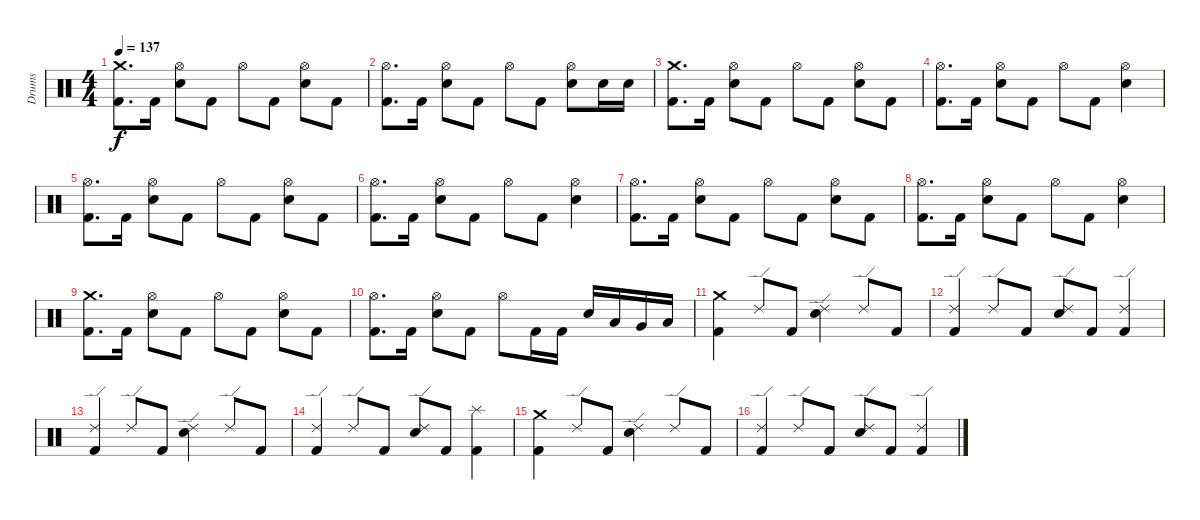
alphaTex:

\track ("Drums" "Drums") {instrument percussion}
\staff {score}
\articulation defaults
\ts (4 4)
\tempo 137
\clef neutral
\ks c
("Crash medium (hit)" "Kick (hit) 2").8{d dy f} "Kick (hit) 2".16 ("Hi-Hat (open)" "Electric Snare (hit)").8 "Kick (hit) 2".8 "Hi-Hat (open)".8 "Kick (hit) 2".8 ("Hi-Hat (open)" "Electric Snare (hit)").8 "Kick (hit) 2".8 |
("Hi-Hat (open)" "Kick (hit) 2").8{d} "Kick (hit) 2".16 ("Hi-Hat (open)" "Electric Snare (hit)").8 "Kick (hit) 2".8 "Hi-Hat (open)".8 "Kick (hit) 2".8 ("Hi-Hat (open)" "Electric Snare (hit)").8 "Electric Snare (hit)".16 "Electric Snare (hit)".16 |
("Crash medium (hit)" "Kick (hit) 2").8{d} "Kick (hit) 2".16 ("Hi-Hat (open)" "Electric Snare (hit)").8 "Kick (hit) 2".8 "Hi-Hat (open)".8 "Kick (hit) 2".8 ("Hi-Hat (open)" "Electric Snare (hit)").8 "Kick (hit) 2".8 |
("Hi-Hat (open)" "Kick (hit) 2").8{d} "Kick (hit) 2".16 ("Hi-Hat (open)" "Electric Snare (hit)").8 "Kick (hit) 2".8 "Hi-Hat (open)".8 "Kick (hit) 2".8 ("Hi-Hat (open)" "Electric Snare (hit)").4 |
("Hi-Hat (open)" "Kick (hit) 2").8{d} "Kick (hit) 2".16 ("Hi-Hat (open)" "Electric Snare (hit)").8 "Kick (hit) 2".8 "Hi-Hat (open)".8 "Kick (hit) 2".8 ("Hi-Hat (open)" "Electric Snare (hit)").8 "Kick (hit) 2".8 |
("Hi-Hat (open)" "Kick (hit) 2").8{d} "Kick (hit) 2".16 ("Hi-Hat (open)" "Electric Snare (hit)").8 "Kick (hit) 2".8 "Hi-Hat (open)".8 "Kick (hit) 2".8 ("Hi-Hat (open)" "Electric Snare (hit)").4 |
("Hi-Hat (open)" "Kick (hit) 2").8{d} "Kick (hit) 2".16 ("Hi-Hat (open)" "Electric Snare (hit)").8 "Kick (hit) 2".8 "Hi-Hat (open)".8 "Kick (hit) 2".8 ("Hi-Hat (open)" "Electric Snare (hit)").8 "Kick (hit) 2".8 |
("Hi-Hat (open)" "Kick (hit) 2").8{d} "Kick (hit) 2".16 ("Hi-Hat (open)" "Electric Snare (hit)").8 "Kick (hit) 2".8 "Hi-Hat (open)".8 "Kick (hit) 2".8 ("Hi-Hat (open)" "Electric Snare (hit)").4 |
("Crash medium (hit)" "Kick (hit) 2").8{d} "Kick (hit) 2".16 ("Hi-Hat (open)" "Electric Snare (hit)").8 "Kick (hit) 2".8 "Hi-Hat (open)".8 "Kick (hit) 2".8 ("Hi-Hat (open)" "Electric Snare (hit)").8 "Kick (hit) 2".8 |
("Hi-Hat (open)" "Kick (hit) 2").8{d} "Kick (hit) 2".16 ("Hi-Hat (open)" "Electric Snare (hit)").8 "Kick (hit) 2".8 "Hi-Hat (open)".8 "Kick (hit) 2".16 "Kick (hit) 2".16 "Electric Snare (hit)".16 "Low Tom (hit)".16 "Very Low Tom (hit)".16 "Low Floor Tom (hit)".16 |
("Kick (hit) 2" "Crash medium (hit)").4 "Ride (edge) 2".8 "Kick (hit) 2".8 ("Ride (edge) 2" "Electric Snare (hit)").4 "Ride (edge) 2".8 "Kick (hit) 2".8 |
("Ride (edge) 2" "Kick (hit) 2").4 "Ride (edge) 2".8 "Kick (hit) 2".8 ("Ride (edge) 2" "Electric Snare (hit)").8 "Kick (hit) 2".8 ("Ride (edge) 2" "Kick (hit) 2").4 |
("Ride (edge) 2" "Kick (hit) 2").4 "Ride (edge) 2".8 "Kick (hit) 2".8 ("Ride (edge) 2" "Electric Snare (hit)").4 "Ride (edge) 2".8 "Kick (hit) 2".8 |
("Ride (edge) 2" "Kick (hit) 2").4 "Ride (edge) 2".8 "Kick (hit) 2".8 ("Ride (edge) 2" "Electric Snare (hit)").8 "Kick (hit) 2".8 ("Splash (hit)" "Kick (hit) 2").4 |
("Kick (hit) 2" "Crash medium (hit)").4 "Ride (edge) 2".8 "Kick (hit) 2".8 ("Ride (edge) 2" "Electric Snare (hit)").4 "Ride (edge) 2".8 "Kick (hit) 2".8 |
("Ride (edge) 2" "Kick (hit) 2").4 "Ride (edge) 2".8 "Kick (hit) 2".8 ("Ride (edge) 2" "Electric Snare (hit)").8 "Kick (hit) 2".8 ("Ride (edge) 2" "Kick (hit) 2").4
